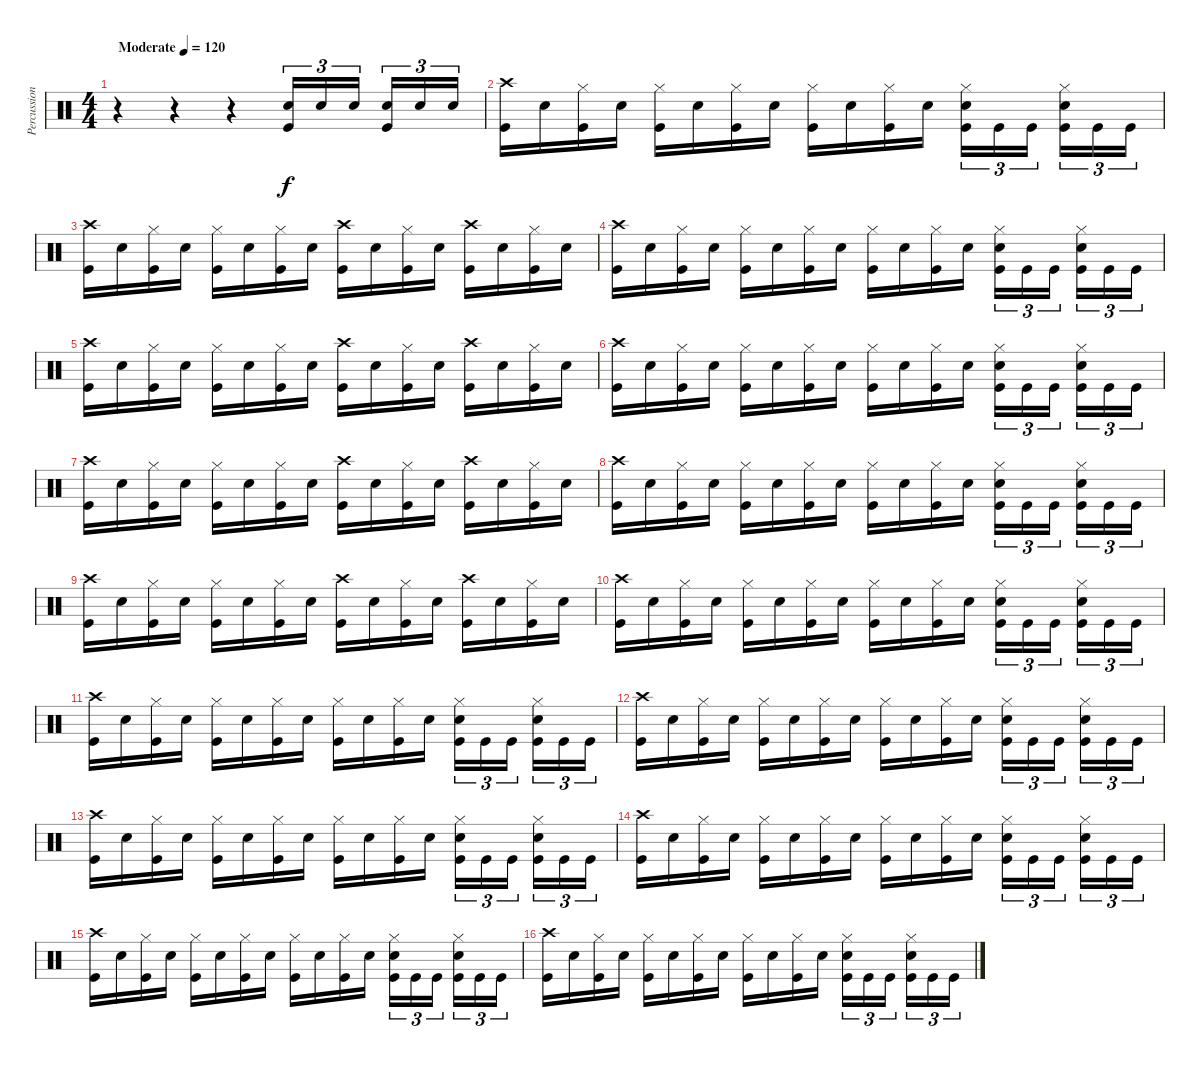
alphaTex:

\track ("Percussion" "Percussion") {instrument percussion}
\staff {score}
\articulation defaults
\ts (4 4)
\tempo (120 "Moderate")
\clef neutral
\ks c
r.4{dy f} r.4 r.4 ("Kick (hit)" "Snare (hit) 2").16{tu (3 2)} "Snare (hit) 2".16{tu (3 2)} "Snare (hit) 2".16{tu (3 2) beam splitsecondary} ("Kick (hit)" "Snare (hit) 2").16{tu (3 2)} "Snare (hit) 2".16{tu (3 2)} "Snare (hit) 2".16{tu (3 2)} |
("Crash high (hit)" "Kick (hit)").16 "Snare (hit) 2".16 ("Hi-Hat (closed)" "Kick (hit)").16 "Snare (hit) 2".16 ("Hi-Hat (closed)" "Kick (hit)").16 "Snare (hit) 2".16 ("Hi-Hat (closed)" "Kick (hit)").16 "Snare (hit) 2".16 ("Hi-Hat (closed)" "Kick (hit)").16 "Snare (hit) 2".16 ("Hi-Hat (closed)" "Kick (hit)").16 "Snare (hit) 2".16 ("Hi-Hat (closed)" "Snare (hit) 2" "Kick (hit)").16{tu (3 2)} "Kick (hit)".16{tu (3 2)} "Kick (hit)".16{tu (3 2) beam splitsecondary} ("Hi-Hat (closed)" "Snare (hit) 2" "Kick (hit)").16{tu (3 2)} "Kick (hit)".16{tu (3 2)} "Kick (hit)".16{tu (3 2)} |
("Crash high (hit)" "Kick (hit)").16 "Snare (hit) 2".16 ("Hi-Hat (closed)" "Kick (hit)").16 "Snare (hit) 2".16 ("Hi-Hat (closed)" "Kick (hit)").16 "Snare (hit) 2".16 ("Hi-Hat (closed)" "Kick (hit)").16 "Snare (hit) 2".16 ("Kick (hit)" "Crash high (hit)").16 "Snare (hit) 2".16 ("Hi-Hat (closed)" "Kick (hit)").16 "Snare (hit) 2".16 ("Kick (hit)" "Crash high (hit)").16 "Snare (hit) 2".16 ("Hi-Hat (closed)" "Kick (hit)").16 "Snare (hit) 2".16 |
("Crash high (hit)" "Kick (hit)").16 "Snare (hit) 2".16 ("Hi-Hat (closed)" "Kick (hit)").16 "Snare (hit) 2".16 ("Hi-Hat (closed)" "Kick (hit)").16 "Snare (hit) 2".16 ("Hi-Hat (closed)" "Kick (hit)").16 "Snare (hit) 2".16 ("Hi-Hat (closed)" "Kick (hit)").16 "Snare (hit) 2".16 ("Hi-Hat (closed)" "Kick (hit)").16 "Snare (hit) 2".16 ("Hi-Hat (closed)" "Snare (hit) 2" "Kick (hit)").16{tu (3 2)} "Kick (hit)".16{tu (3 2)} "Kick (hit)".16{tu (3 2) beam splitsecondary} ("Hi-Hat (closed)" "Snare (hit) 2" "Kick (hit)").16{tu (3 2)} "Kick (hit)".16{tu (3 2)} "Kick (hit)".16{tu (3 2)} |
("Crash high (hit)" "Kick (hit)").16 "Snare (hit) 2".16 ("Hi-Hat (closed)" "Kick (hit)").16 "Snare (hit) 2".16 ("Hi-Hat (closed)" "Kick (hit)").16 "Snare (hit) 2".16 ("Hi-Hat (closed)" "Kick (hit)").16 "Snare (hit) 2".16 ("Kick (hit)" "Crash high (hit)").16 "Snare (hit) 2".16 ("Hi-Hat (closed)" "Kick (hit)").16 "Snare (hit) 2".16 ("Kick (hit)" "Crash high (hit)").16 "Snare (hit) 2".16 ("Hi-Hat (closed)" "Kick (hit)").16 "Snare (hit) 2".16 |
("Crash high (hit)" "Kick (hit)").16 "Snare (hit) 2".16 ("Hi-Hat (closed)" "Kick (hit)").16 "Snare (hit) 2".16 ("Hi-Hat (closed)" "Kick (hit)").16 "Snare (hit) 2".16 ("Hi-Hat (closed)" "Kick (hit)").16 "Snare (hit) 2".16 ("Hi-Hat (closed)" "Kick (hit)").16 "Snare (hit) 2".16 ("Hi-Hat (closed)" "Kick (hit)").16 "Snare (hit) 2".16 ("Hi-Hat (closed)" "Snare (hit) 2" "Kick (hit)").16{tu (3 2)} "Kick (hit)".16{tu (3 2)} "Kick (hit)".16{tu (3 2) beam splitsecondary} ("Hi-Hat (closed)" "Snare (hit) 2" "Kick (hit)").16{tu (3 2)} "Kick (hit)".16{tu (3 2)} "Kick (hit)".16{tu (3 2)} |
("Crash high (hit)" "Kick (hit)").16 "Snare (hit) 2".16 ("Hi-Hat (closed)" "Kick (hit)").16 "Snare (hit) 2".16 ("Hi-Hat (closed)" "Kick (hit)").16 "Snare (hit) 2".16 ("Hi-Hat (closed)" "Kick (hit)").16 "Snare (hit) 2".16 ("Kick (hit)" "Crash high (hit)").16 "Snare (hit) 2".16 ("Hi-Hat (closed)" "Kick (hit)").16 "Snare (hit) 2".16 ("Kick (hit)" "Crash high (hit)").16 "Snare (hit) 2".16 ("Hi-Hat (closed)" "Kick (hit)").16 "Snare (hit) 2".16 |
("Crash high (hit)" "Kick (hit)").16 "Snare (hit) 2".16 ("Hi-Hat (closed)" "Kick (hit)").16 "Snare (hit) 2".16 ("Hi-Hat (closed)" "Kick (hit)").16 "Snare (hit) 2".16 ("Hi-Hat (closed)" "Kick (hit)").16 "Snare (hit) 2".16 ("Hi-Hat (closed)" "Kick (hit)").16 "Snare (hit) 2".16 ("Hi-Hat (closed)" "Kick (hit)").16 "Snare (hit) 2".16 ("Hi-Hat (closed)" "Snare (hit) 2" "Kick (hit)").16{tu (3 2)} "Kick (hit)".16{tu (3 2)} "Kick (hit)".16{tu (3 2) beam splitsecondary} ("Hi-Hat (closed)" "Snare (hit) 2" "Kick (hit)").16{tu (3 2)} "Kick (hit)".16{tu (3 2)} "Kick (hit)".16{tu (3 2)} |
("Crash high (hit)" "Kick (hit)").16 "Snare (hit) 2".16 ("Hi-Hat (closed)" "Kick (hit)").16 "Snare (hit) 2".16 ("Hi-Hat (closed)" "Kick (hit)").16 "Snare (hit) 2".16 ("Hi-Hat (closed)" "Kick (hit)").16 "Snare (hit) 2".16 ("Kick (hit)" "Crash high (hit)").16 "Snare (hit) 2".16 ("Hi-Hat (closed)" "Kick (hit)").16 "Snare (hit) 2".16 ("Kick (hit)" "Crash high (hit)").16 "Snare (hit) 2".16 ("Hi-Hat (closed)" "Kick (hit)").16 "Snare (hit) 2".16 |
("Crash high (hit)" "Kick (hit)").16 "Snare (hit) 2".16 ("Hi-Hat (closed)" "Kick (hit)").16 "Snare (hit) 2".16 ("Hi-Hat (closed)" "Kick (hit)").16 "Snare (hit) 2".16 ("Hi-Hat (closed)" "Kick (hit)").16 "Snare (hit) 2".16 ("Hi-Hat (closed)" "Kick (hit)").16 "Snare (hit) 2".16 ("Hi-Hat (closed)" "Kick (hit)").16 "Snare (hit) 2".16 ("Hi-Hat (closed)" "Snare (hit) 2" "Kick (hit)").16{tu (3 2)} "Kick (hit)".16{tu (3 2)} "Kick (hit)".16{tu (3 2) beam splitsecondary} ("Hi-Hat (closed)" "Snare (hit) 2" "Kick (hit)").16{tu (3 2)} "Kick (hit)".16{tu (3 2)} "Kick (hit)".16{tu (3 2)} |
("Crash high (hit)" "Kick (hit)").16 "Snare (hit) 2".16 ("Hi-Hat (closed)" "Kick (hit)").16 "Snare (hit) 2".16 ("Hi-Hat (closed)" "Kick (hit)").16 "Snare (hit) 2".16 ("Hi-Hat (closed)" "Kick (hit)").16 "Snare (hit) 2".16 ("Hi-Hat (closed)" "Kick (hit)").16 "Snare (hit) 2".16 ("Hi-Hat (closed)" "Kick (hit)").16 "Snare (hit) 2".16 ("Hi-Hat (closed)" "Snare (hit) 2" "Kick (hit)").16{tu (3 2)} "Kick (hit)".16{tu (3 2)} "Kick (hit)".16{tu (3 2) beam splitsecondary} ("Hi-Hat (closed)" "Snare (hit) 2" "Kick (hit)").16{tu (3 2)} "Kick (hit)".16{tu (3 2)} "Kick (hit)".16{tu (3 2)} |
("Crash high (hit)" "Kick (hit)").16 "Snare (hit) 2".16 ("Hi-Hat (closed)" "Kick (hit)").16 "Snare (hit) 2".16 ("Hi-Hat (closed)" "Kick (hit)").16 "Snare (hit) 2".16 ("Hi-Hat (closed)" "Kick (hit)").16 "Snare (hit) 2".16 ("Hi-Hat (closed)" "Kick (hit)").16 "Snare (hit) 2".16 ("Hi-Hat (closed)" "Kick (hit)").16 "Snare (hit) 2".16 ("Hi-Hat (closed)" "Snare (hit) 2" "Kick (hit)").16{tu (3 2)} "Kick (hit)".16{tu (3 2)} "Kick (hit)".16{tu (3 2) beam splitsecondary} ("Hi-Hat (closed)" "Snare (hit) 2" "Kick (hit)").16{tu (3 2)} "Kick (hit)".16{tu (3 2)} "Kick (hit)".16{tu (3 2)} |
("Crash high (hit)" "Kick (hit)").16 "Snare (hit) 2".16 ("Hi-Hat (closed)" "Kick (hit)").16 "Snare (hit) 2".16 ("Hi-Hat (closed)" "Kick (hit)").16 "Snare (hit) 2".16 ("Hi-Hat (closed)" "Kick (hit)").16 "Snare (hit) 2".16 ("Hi-Hat (closed)" "Kick (hit)").16 "Snare (hit) 2".16 ("Hi-Hat (closed)" "Kick (hit)").16 "Snare (hit) 2".16 ("Hi-Hat (closed)" "Snare (hit) 2" "Kick (hit)").16{tu (3 2)} "Kick (hit)".16{tu (3 2)} "Kick (hit)".16{tu (3 2) beam splitsecondary} ("Hi-Hat (closed)" "Snare (hit) 2" "Kick (hit)").16{tu (3 2)} "Kick (hit)".16{tu (3 2)} "Kick (hit)".16{tu (3 2)} |
("Crash high (hit)" "Kick (hit)").16 "Snare (hit) 2".16 ("Hi-Hat (closed)" "Kick (hit)").16 "Snare (hit) 2".16 ("Hi-Hat (closed)" "Kick (hit)").16 "Snare (hit) 2".16 ("Hi-Hat (closed)" "Kick (hit)").16 "Snare (hit) 2".16 ("Hi-Hat (closed)" "Kick (hit)").16 "Snare (hit) 2".16 ("Hi-Hat (closed)" "Kick (hit)").16 "Snare (hit) 2".16 ("Hi-Hat (closed)" "Snare (hit) 2" "Kick (hit)").16{tu (3 2)} "Kick (hit)".16{tu (3 2)} "Kick (hit)".16{tu (3 2) beam splitsecondary} ("Hi-Hat (closed)" "Snare (hit) 2" "Kick (hit)").16{tu (3 2)} "Kick (hit)".16{tu (3 2)} "Kick (hit)".16{tu (3 2)} |
("Crash high (hit)" "Kick (hit)").16 "Snare (hit) 2".16 ("Hi-Hat (closed)" "Kick (hit)").16 "Snare (hit) 2".16 ("Hi-Hat (closed)" "Kick (hit)").16 "Snare (hit) 2".16 ("Hi-Hat (closed)" "Kick (hit)").16 "Snare (hit) 2".16 ("Hi-Hat (closed)" "Kick (hit)").16 "Snare (hit) 2".16 ("Hi-Hat (closed)" "Kick (hit)").16 "Snare (hit) 2".16 ("Hi-Hat (closed)" "Snare (hit) 2" "Kick (hit)").16{tu (3 2)} "Kick (hit)".16{tu (3 2)} "Kick (hit)".16{tu (3 2) beam splitsecondary} ("Hi-Hat (closed)" "Snare (hit) 2" "Kick (hit)").16{tu (3 2)} "Kick (hit)".16{tu (3 2)} "Kick (hit)".16{tu (3 2)} |
("Crash high (hit)" "Kick (hit)").16 "Snare (hit) 2".16 ("Hi-Hat (closed)" "Kick (hit)").16 "Snare (hit) 2".16 ("Hi-Hat (closed)" "Kick (hit)").16 "Snare (hit) 2".16 ("Hi-Hat (closed)" "Kick (hit)").16 "Snare (hit) 2".16 ("Hi-Hat (closed)" "Kick (hit)").16 "Snare (hit) 2".16 ("Hi-Hat (closed)" "Kick (hit)").16 "Snare (hit) 2".16 ("Hi-Hat (closed)" "Snare (hit) 2" "Kick (hit)").16{tu (3 2)} "Kick (hit)".16{tu (3 2)} "Kick (hit)".16{tu (3 2) beam splitsecondary} ("Hi-Hat (closed)" "Snare (hit) 2" "Kick (hit)").16{tu (3 2)} "Kick (hit)".16{tu (3 2)} "Kick (hit)".16{tu (3 2)}
